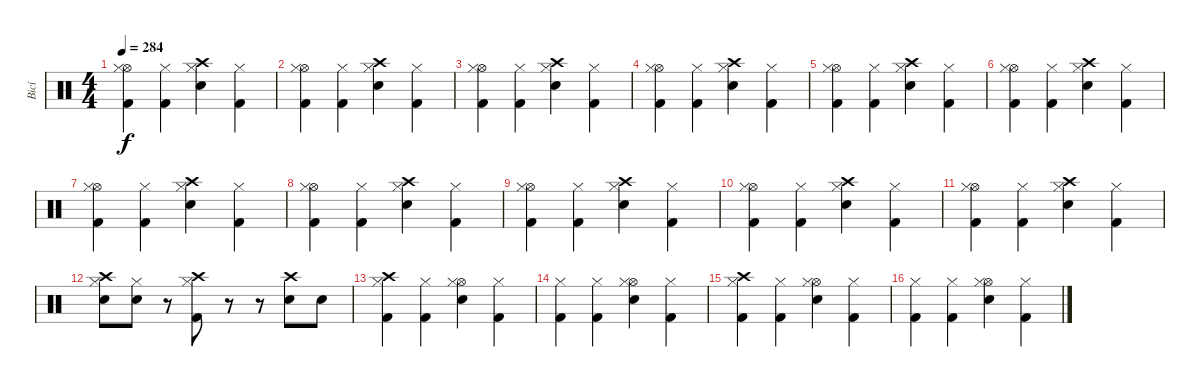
\track ("Bicí" "Bicí") {instrument percussion}
\staff {score}
\articulation defaults
\ts (4 4)
\tempo 284
\clef neutral
\ks c
("Hi-Hat (open)" "Hi-Hat (closed)" "Kick (hit) 2").4{dy f} ("Hi-Hat (closed)" "Kick (hit) 2").4 ("Crash high (hit)" "Hi-Hat (closed)" "Electric Snare (hit)").4 ("Hi-Hat (closed)" "Kick (hit) 2").4 |
("Hi-Hat (open)" "Hi-Hat (closed)" "Kick (hit) 2").4 ("Hi-Hat (closed)" "Kick (hit) 2").4 ("Crash high (hit)" "Hi-Hat (closed)" "Electric Snare (hit)").4 ("Hi-Hat (closed)" "Kick (hit) 2").4 |
("Hi-Hat (open)" "Hi-Hat (closed)" "Kick (hit) 2").4 ("Hi-Hat (closed)" "Kick (hit) 2").4 ("Crash high (hit)" "Hi-Hat (closed)" "Electric Snare (hit)").4 ("Hi-Hat (closed)" "Kick (hit) 2").4 |
("Hi-Hat (open)" "Hi-Hat (closed)" "Kick (hit) 2").4 ("Hi-Hat (closed)" "Kick (hit) 2").4 ("Crash high (hit)" "Hi-Hat (closed)" "Electric Snare (hit)").4 ("Hi-Hat (closed)" "Kick (hit) 2").4 |
("Hi-Hat (open)" "Hi-Hat (closed)" "Kick (hit) 2").4 ("Hi-Hat (closed)" "Kick (hit) 2").4 ("Crash high (hit)" "Hi-Hat (closed)" "Electric Snare (hit)").4 ("Hi-Hat (closed)" "Kick (hit) 2").4 |
("Hi-Hat (open)" "Hi-Hat (closed)" "Kick (hit) 2").4 ("Hi-Hat (closed)" "Kick (hit) 2").4 ("Crash high (hit)" "Hi-Hat (closed)" "Electric Snare (hit)").4 ("Hi-Hat (closed)" "Kick (hit) 2").4 |
("Hi-Hat (open)" "Hi-Hat (closed)" "Kick (hit) 2").4 ("Hi-Hat (closed)" "Kick (hit) 2").4 ("Crash high (hit)" "Hi-Hat (closed)" "Electric Snare (hit)").4 ("Hi-Hat (closed)" "Kick (hit) 2").4 |
("Hi-Hat (open)" "Hi-Hat (closed)" "Kick (hit) 2").4 ("Hi-Hat (closed)" "Kick (hit) 2").4 ("Crash high (hit)" "Hi-Hat (closed)" "Electric Snare (hit)").4 ("Hi-Hat (closed)" "Kick (hit) 2").4 |
("Hi-Hat (open)" "Hi-Hat (closed)" "Kick (hit) 2").4 ("Hi-Hat (closed)" "Kick (hit) 2").4 ("Crash high (hit)" "Hi-Hat (closed)" "Electric Snare (hit)").4 ("Hi-Hat (closed)" "Kick (hit) 2").4 |
("Hi-Hat (open)" "Hi-Hat (closed)" "Kick (hit) 2").4 ("Hi-Hat (closed)" "Kick (hit) 2").4 ("Crash high (hit)" "Hi-Hat (closed)" "Electric Snare (hit)").4 ("Hi-Hat (closed)" "Kick (hit) 2").4 |
("Hi-Hat (open)" "Hi-Hat (closed)" "Kick (hit) 2").4 ("Hi-Hat (closed)" "Kick (hit) 2").4 ("Crash high (hit)" "Hi-Hat (closed)" "Electric Snare (hit)").4 ("Hi-Hat (closed)" "Kick (hit) 2").4 |
("Crash high (hit)" "Hi-Hat (closed)" "Electric Snare (hit)").8 ("Hi-Hat (closed)" "Electric Snare (hit)").8 r.8 ("Crash high (hit)" "Hi-Hat (closed)" "Kick (hit) 2").8 r.8 r.8 ("Crash high (hit)" "Electric Snare (hit)").8 "Electric Snare (hit)".8 |
("Crash high (hit)" "Hi-Hat (closed)" "Kick (hit) 2").4 ("Hi-Hat (closed)" "Kick (hit) 2").4 ("Hi-Hat (open)" "Hi-Hat (closed)" "Electric Snare (hit)").4 ("Hi-Hat (closed)" "Kick (hit) 2").4 |
("Hi-Hat (closed)" "Kick (hit) 2").4 ("Hi-Hat (closed)" "Kick (hit) 2").4 ("Hi-Hat (open)" "Hi-Hat (closed)" "Electric Snare (hit)").4 ("Hi-Hat (closed)" "Kick (hit) 2").4 |
("Crash high (hit)" "Hi-Hat (closed)" "Kick (hit) 2").4 ("Hi-Hat (closed)" "Kick (hit) 2").4 ("Hi-Hat (open)" "Hi-Hat (closed)" "Electric Snare (hit)").4 ("Hi-Hat (closed)" "Kick (hit) 2").4 |
("Hi-Hat (closed)" "Kick (hit) 2").4 ("Hi-Hat (closed)" "Kick (hit) 2").4 ("Hi-Hat (open)" "Hi-Hat (closed)" "Electric Snare (hit)").4 ("Hi-Hat (closed)" "Kick (hit) 2").4
